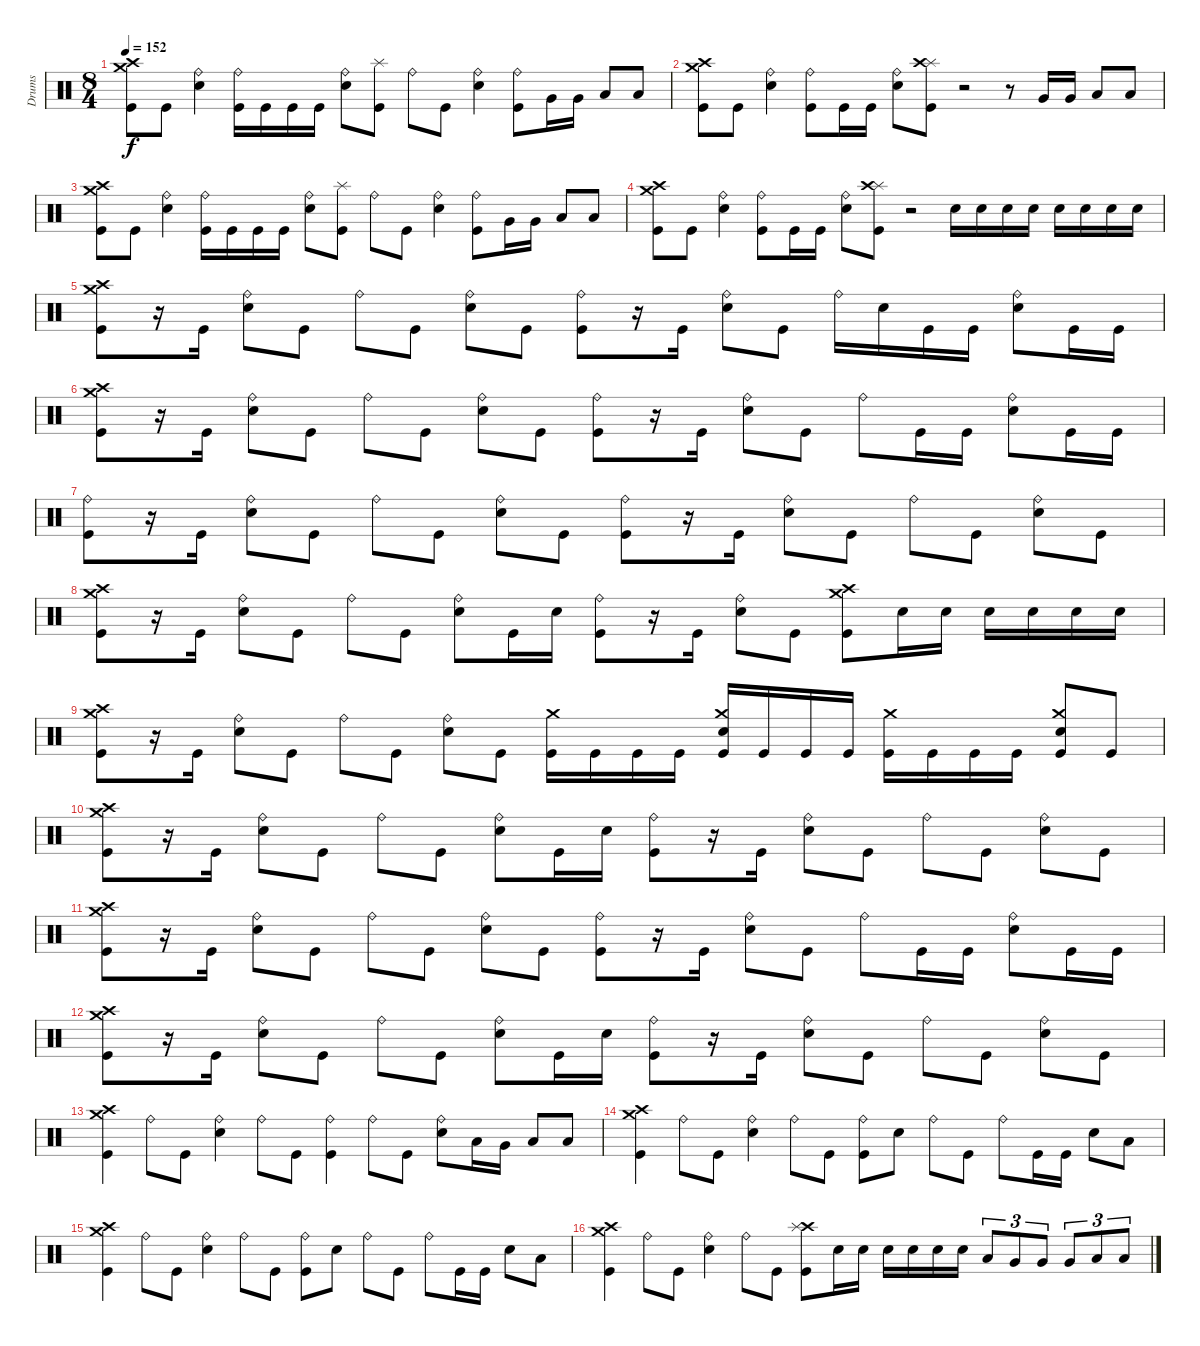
\track ("Drums" "Drums") {instrument percussion}
\staff {score}
\articulation defaults
\ts (8 4)
\tempo 152
\clef neutral
\ks c
("Kick (hit)" "Crash high (hit)" "Crash medium (hit)").8{dy f} "Kick (hit)".8 ("Electric Snare (hit)" "Ride (bell)").4 ("Kick (hit)" "Ride (bell)").16 "Kick (hit)".16 "Kick (hit)".16 "Kick (hit)".16 ("Electric Snare (hit)" "Ride (bell)").8 ("Kick (hit)" "Splash (hit)").8 "Ride (bell)".8 "Kick (hit)".8 ("Electric Snare (hit)" "Ride (bell)").4 ("Kick (hit)" "Ride (bell)").8 "Very Low Tom (hit)".16 "Very Low Tom (hit)".16 "Low Floor Tom (hit)".8 "Low Floor Tom (hit)".8 |
("Kick (hit)" "Crash medium (hit)" "Crash high (hit)").8 "Kick (hit)".8 ("Electric Snare (hit)" "Ride (bell)").4 ("Kick (hit)" "Ride (bell)").8 "Kick (hit)".16 "Kick (hit)".16 ("Electric Snare (hit)" "Ride (bell)").8 ("Kick (hit)" "Splash (hit)" "Crash high (hit)").8 r.2 r.8 "Very Low Tom (hit)".16 "Very Low Tom (hit)".16 "Low Floor Tom (hit)".8 "Low Floor Tom (hit)".8 |
("Kick (hit)" "Crash high (hit)" "Crash medium (hit)").8 "Kick (hit)".8 ("Electric Snare (hit)" "Ride (bell)").4 ("Kick (hit)" "Ride (bell)").16 "Kick (hit)".16 "Kick (hit)".16 "Kick (hit)".16 ("Electric Snare (hit)" "Ride (bell)").8 ("Kick (hit)" "Splash (hit)").8 "Ride (bell)".8 "Kick (hit)".8 ("Electric Snare (hit)" "Ride (bell)").4 ("Kick (hit)" "Ride (bell)").8 "Very Low Tom (hit)".16 "Very Low Tom (hit)".16 "Low Floor Tom (hit)".8 "Low Floor Tom (hit)".8 |
("Kick (hit)" "Crash medium (hit)" "Crash high (hit)").8 "Kick (hit)".8 ("Electric Snare (hit)" "Ride (bell)").4 ("Kick (hit)" "Ride (bell)").8 "Kick (hit)".16 "Kick (hit)".16 ("Electric Snare (hit)" "Ride (bell)").8 ("Kick (hit)" "Splash (hit)" "Crash high (hit)").8 r.2 "Electric Snare (hit)".16 "Electric Snare (hit)".16 "Electric Snare (hit)".16 "Electric Snare (hit)".16 "Electric Snare (hit)".16 "Electric Snare (hit)".16 "Electric Snare (hit)".16 "Electric Snare (hit)".16 |
("Kick (hit)" "Crash high (hit)" "Crash medium (hit)").8 r.16 "Kick (hit)".16 ("Electric Snare (hit)" "Ride (bell)").8 "Kick (hit)".8 "Ride (bell)".8 "Kick (hit)".8 ("Electric Snare (hit)" "Ride (bell)").8 "Kick (hit)".8 ("Kick (hit)" "Ride (bell)").8 r.16 "Kick (hit)".16 ("Electric Snare (hit)" "Ride (bell)").8 "Kick (hit)".8 "Ride (bell)".16 "Electric Snare (hit)".16 "Kick (hit)".16 "Kick (hit)".16 ("Electric Snare (hit)" "Ride (bell)").8 "Kick (hit)".16 "Kick (hit)".16 |
("Kick (hit)" "Crash high (hit)" "Crash medium (hit)").8 r.16 "Kick (hit)".16 ("Electric Snare (hit)" "Ride (bell)").8 "Kick (hit)".8 "Ride (bell)".8 "Kick (hit)".8 ("Electric Snare (hit)" "Ride (bell)").8 "Kick (hit)".8 ("Kick (hit)" "Ride (bell)").8 r.16 "Kick (hit)".16 ("Electric Snare (hit)" "Ride (bell)").8 "Kick (hit)".8 "Ride (bell)".8 "Kick (hit)".16 "Kick (hit)".16 ("Electric Snare (hit)" "Ride (bell)").8 "Kick (hit)".16 "Kick (hit)".16 |
("Kick (hit)" "Ride (bell)").8 r.16 "Kick (hit)".16 ("Electric Snare (hit)" "Ride (bell)").8 "Kick (hit)".8 "Ride (bell)".8 "Kick (hit)".8 ("Electric Snare (hit)" "Ride (bell)").8 "Kick (hit)".8 ("Kick (hit)" "Ride (bell)").8 r.16 "Kick (hit)".16 ("Electric Snare (hit)" "Ride (bell)").8 "Kick (hit)".8 "Ride (bell)".8 "Kick (hit)".8 ("Electric Snare (hit)" "Ride (bell)").8 "Kick (hit)".8 |
("Kick (hit)" "Crash high (hit)" "Crash medium (hit)").8 r.16 "Kick (hit)".16 ("Electric Snare (hit)" "Ride (bell)").8 "Kick (hit)".8 "Ride (bell)".8 "Kick (hit)".8 ("Electric Snare (hit)" "Ride (bell)").8 "Kick (hit)".16 "Electric Snare (hit)".16 ("Kick (hit)" "Ride (bell)").8 r.16 "Kick (hit)".16 ("Electric Snare (hit)" "Ride (bell)").8 "Kick (hit)".8 ("Kick (hit)" "Crash medium (hit)" "Crash high (hit)").8 "Electric Snare (hit)".16 "Electric Snare (hit)".16 "Electric Snare (hit)".16 "Electric Snare (hit)".16 "Electric Snare (hit)".16 "Electric Snare (hit)".16 |
("Kick (hit)" "Crash high (hit)" "Crash medium (hit)").8 r.16 "Kick (hit)".16 ("Electric Snare (hit)" "Ride (bell)").8 "Kick (hit)".8 "Ride (bell)".8 "Kick (hit)".8 ("Electric Snare (hit)" "Ride (bell)").8 "Kick (hit)".8 ("Kick (hit)" "Crash medium (hit)").16 "Kick (hit)".16 "Kick (hit)".16 "Kick (hit)".16 ("Kick (hit)" "Crash medium (hit)" "Electric Snare (hit)").16 "Kick (hit)".16 "Kick (hit)".16 "Kick (hit)".16 ("Kick (hit)" "Crash medium (hit)").16 "Kick (hit)".16 "Kick (hit)".16 "Kick (hit)".16 ("Kick (hit)" "Crash medium (hit)" "Electric Snare (hit)").8 "Kick (hit)".8 |
("Kick (hit)" "Crash high (hit)" "Crash medium (hit)").8 r.16 "Kick (hit)".16 ("Electric Snare (hit)" "Ride (bell)").8 "Kick (hit)".8 "Ride (bell)".8 "Kick (hit)".8 ("Electric Snare (hit)" "Ride (bell)").8 "Kick (hit)".16 "Electric Snare (hit)".16 ("Kick (hit)" "Ride (bell)").8 r.16 "Kick (hit)".16 ("Electric Snare (hit)" "Ride (bell)").8 "Kick (hit)".8 "Ride (bell)".8 "Kick (hit)".8 ("Electric Snare (hit)" "Ride (bell)").8 "Kick (hit)".8 |
("Kick (hit)" "Crash high (hit)" "Crash medium (hit)").8 r.16 "Kick (hit)".16 ("Electric Snare (hit)" "Ride (bell)").8 "Kick (hit)".8 "Ride (bell)".8 "Kick (hit)".8 ("Electric Snare (hit)" "Ride (bell)").8 "Kick (hit)".8 ("Kick (hit)" "Ride (bell)").8 r.16 "Kick (hit)".16 ("Electric Snare (hit)" "Ride (bell)").8 "Kick (hit)".8 "Ride (bell)".8 "Kick (hit)".16 "Kick (hit)".16 ("Electric Snare (hit)" "Ride (bell)").8 "Kick (hit)".16 "Kick (hit)".16 |
("Kick (hit)" "Crash high (hit)" "Crash medium (hit)").8 r.16 "Kick (hit)".16 ("Electric Snare (hit)" "Ride (bell)").8 "Kick (hit)".8 "Ride (bell)".8 "Kick (hit)".8 ("Electric Snare (hit)" "Ride (bell)").8 "Kick (hit)".16 "Electric Snare (hit)".16 ("Kick (hit)" "Ride (bell)").8 r.16 "Kick (hit)".16 ("Electric Snare (hit)" "Ride (bell)").8 "Kick (hit)".8 "Ride (bell)".8 "Kick (hit)".8 ("Electric Snare (hit)" "Ride (bell)").8 "Kick (hit)".8 |
("Kick (hit)" "Crash high (hit)" "Crash medium (hit)").4 "Ride (bell)".8 "Kick (hit)".8 ("Electric Snare (hit)" "Ride (bell)").4 "Ride (bell)".8 "Kick (hit)".8 ("Kick (hit)" "Ride (bell)").4 "Ride (bell)".8 "Kick (hit)".8 ("Electric Snare (hit)" "Ride (bell)").8 "Low Tom (hit)".16 "Very Low Tom (hit)".16 "Low Floor Tom (hit)".8 "Low Floor Tom (hit)".8 |
("Kick (hit)" "Crash high (hit)" "Crash medium (hit)").4 "Ride (bell)".8 "Kick (hit)".8 ("Electric Snare (hit)" "Ride (bell)").4 "Ride (bell)".8 "Kick (hit)".8 ("Kick (hit)" "Ride (bell)").8 "Electric Snare (hit)".8 "Ride (bell)".8 "Kick (hit)".8 "Ride (bell)".8 "Kick (hit)".16 "Kick (hit)".16 "Electric Snare (hit)".8 "Low Floor Tom (hit)".8 |
("Kick (hit)" "Crash high (hit)" "Crash medium (hit)").4 "Ride (bell)".8 "Kick (hit)".8 ("Electric Snare (hit)" "Ride (bell)").4 "Ride (bell)".8 "Kick (hit)".8 ("Kick (hit)" "Ride (bell)").8 "Electric Snare (hit)".8 "Ride (bell)".8 "Kick (hit)".8 "Ride (bell)".8 "Kick (hit)".16 "Kick (hit)".16 "Electric Snare (hit)".8 "Low Floor Tom (hit)".8 |
("Kick (hit)" "Crash high (hit)" "Crash medium (hit)").4 "Ride (bell)".8 "Kick (hit)".8 ("Electric Snare (hit)" "Ride (bell)").4 "Ride (bell)".8 "Kick (hit)".8 ("Kick (hit)" "Crash high (hit)" "Splash (hit)").8 "Electric Snare (hit)".16 "Electric Snare (hit)".16 "Electric Snare (hit)".16 "Electric Snare (hit)".16 "Electric Snare (hit)".16 "Electric Snare (hit)".16 "Low Tom (hit)".8{tu (3 2)} "Very Low Tom (hit)".8{tu (3 2)} "Very Low Tom (hit)".8{tu (3 2)} "Very Low Tom (hit)".8{tu (3 2)} "Low Floor Tom (hit)".8{tu (3 2)} "Low Floor Tom (hit)".8{tu (3 2)}
